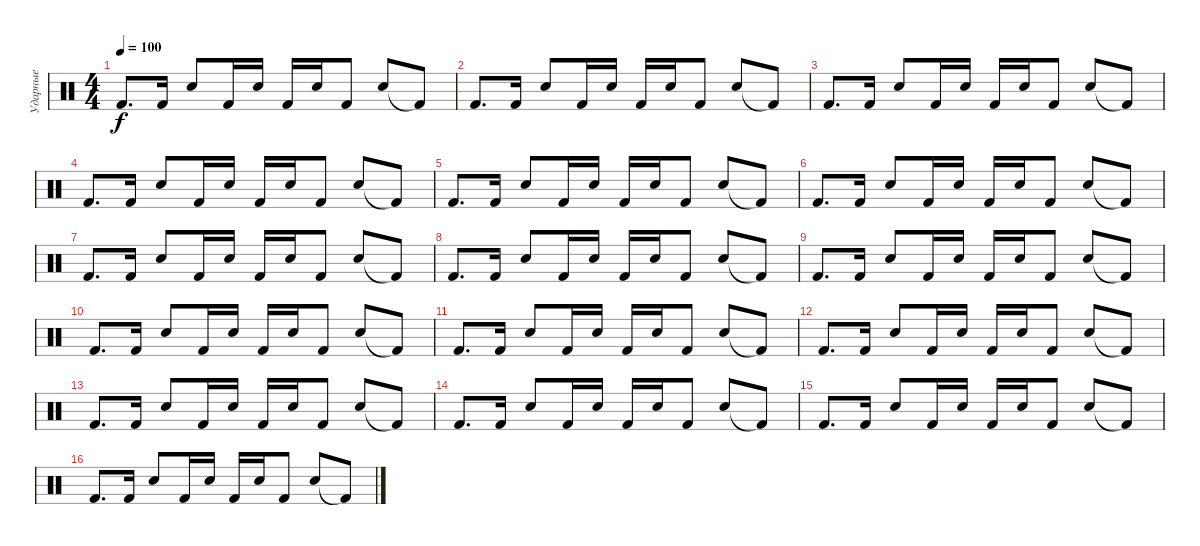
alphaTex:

\track ("Ударные" "Ударные") {instrument percussion}
\staff {score}
\articulation defaults
\ts (4 4)
\tempo 100
\clef neutral
\ks c "Kick (hit) 2".8{d dy f} "Kick (hit) 2".16 "Snare (hit) 2".8 "Kick (hit) 2".16 "Snare (hit) 2".16 "Kick (hit) 2".16 "Snare (hit) 2".16 "Kick (hit) 2".8 "Snare (hit) 2".8 "Kick (hit) 2"{t}.8
|
"Kick (hit) 2".8{d} "Kick (hit) 2".16 "Snare (hit) 2".8 "Kick (hit) 2".16 "Snare (hit) 2".16 "Kick (hit) 2".16 "Snare (hit) 2".16 "Kick (hit) 2".8 "Snare (hit) 2".8 "Kick (hit) 2"{t}.8 |
"Kick (hit) 2".8{d} "Kick (hit) 2".16 "Snare (hit) 2".8 "Kick (hit) 2".16 "Snare (hit) 2".16 "Kick (hit) 2".16 "Snare (hit) 2".16 "Kick (hit) 2".8 "Snare (hit) 2".8 "Kick (hit) 2"{t}.8 |
"Kick (hit) 2".8{d} "Kick (hit) 2".16 "Snare (hit) 2".8 "Kick (hit) 2".16 "Snare (hit) 2".16 "Kick (hit) 2".16 "Snare (hit) 2".16 "Kick (hit) 2".8 "Snare (hit) 2".8 "Kick (hit) 2"{t}.8 |
"Kick (hit) 2".8{d} "Kick (hit) 2".16 "Snare (hit) 2".8 "Kick (hit) 2".16 "Snare (hit) 2".16 "Kick (hit) 2".16 "Snare (hit) 2".16 "Kick (hit) 2".8 "Snare (hit) 2".8 "Kick (hit) 2"{t}.8 |
"Kick (hit) 2".8{d} "Kick (hit) 2".16 "Snare (hit) 2".8 "Kick (hit) 2".16 "Snare (hit) 2".16 "Kick (hit) 2".16 "Snare (hit) 2".16 "Kick (hit) 2".8 "Snare (hit) 2".8 "Kick (hit) 2"{t}.8 |
"Kick (hit) 2".8{d} "Kick (hit) 2".16 "Snare (hit) 2".8 "Kick (hit) 2".16 "Snare (hit) 2".16 "Kick (hit) 2".16 "Snare (hit) 2".16 "Kick (hit) 2".8 "Snare (hit) 2".8 "Kick (hit) 2"{t}.8 |
"Kick (hit) 2".8{d} "Kick (hit) 2".16 "Snare (hit) 2".8 "Kick (hit) 2".16 "Snare (hit) 2".16 "Kick (hit) 2".16 "Snare (hit) 2".16 "Kick (hit) 2".8 "Snare (hit) 2".8 "Kick (hit) 2"{t}.8 |
"Kick (hit) 2".8{d} "Kick (hit) 2".16 "Snare (hit) 2".8 "Kick (hit) 2".16 "Snare (hit) 2".16 "Kick (hit) 2".16 "Snare (hit) 2".16 "Kick (hit) 2".8 "Snare (hit) 2".8 "Kick (hit) 2"{t}.8 |
"Kick (hit) 2".8{d} "Kick (hit) 2".16 "Snare (hit) 2".8 "Kick (hit) 2".16 "Snare (hit) 2".16 "Kick (hit) 2".16 "Snare (hit) 2".16 "Kick (hit) 2".8 "Snare (hit) 2".8 "Kick (hit) 2"{t}.8 |
"Kick (hit) 2".8{d} "Kick (hit) 2".16 "Snare (hit) 2".8 "Kick (hit) 2".16 "Snare (hit) 2".16 "Kick (hit) 2".16 "Snare (hit) 2".16 "Kick (hit) 2".8 "Snare (hit) 2".8 "Kick (hit) 2"{t}.8 |
"Kick (hit) 2".8{d} "Kick (hit) 2".16 "Snare (hit) 2".8 "Kick (hit) 2".16 "Snare (hit) 2".16 "Kick (hit) 2".16 "Snare (hit) 2".16 "Kick (hit) 2".8 "Snare (hit) 2".8 "Kick (hit) 2"{t}.8 |
"Kick (hit) 2".8{d} "Kick (hit) 2".16 "Snare (hit) 2".8 "Kick (hit) 2".16 "Snare (hit) 2".16 "Kick (hit) 2".16 "Snare (hit) 2".16 "Kick (hit) 2".8 "Snare (hit) 2".8 "Kick (hit) 2"{t}.8 |
"Kick (hit) 2".8{d} "Kick (hit) 2".16 "Snare (hit) 2".8 "Kick (hit) 2".16 "Snare (hit) 2".16 "Kick (hit) 2".16 "Snare (hit) 2".16 "Kick (hit) 2".8 "Snare (hit) 2".8 "Kick (hit) 2"{t}.8 |
"Kick (hit) 2".8{d} "Kick (hit) 2".16 "Snare (hit) 2".8 "Kick (hit) 2".16 "Snare (hit) 2".16 "Kick (hit) 2".16 "Snare (hit) 2".16 "Kick (hit) 2".8 "Snare (hit) 2".8 "Kick (hit) 2"{t}.8 |
"Kick (hit) 2".8{d} "Kick (hit) 2".16 "Snare (hit) 2".8 "Kick (hit) 2".16 "Snare (hit) 2".16 "Kick (hit) 2".16 "Snare (hit) 2".16 "Kick (hit) 2".8 "Snare (hit) 2".8 "Kick (hit) 2"{t}.8
